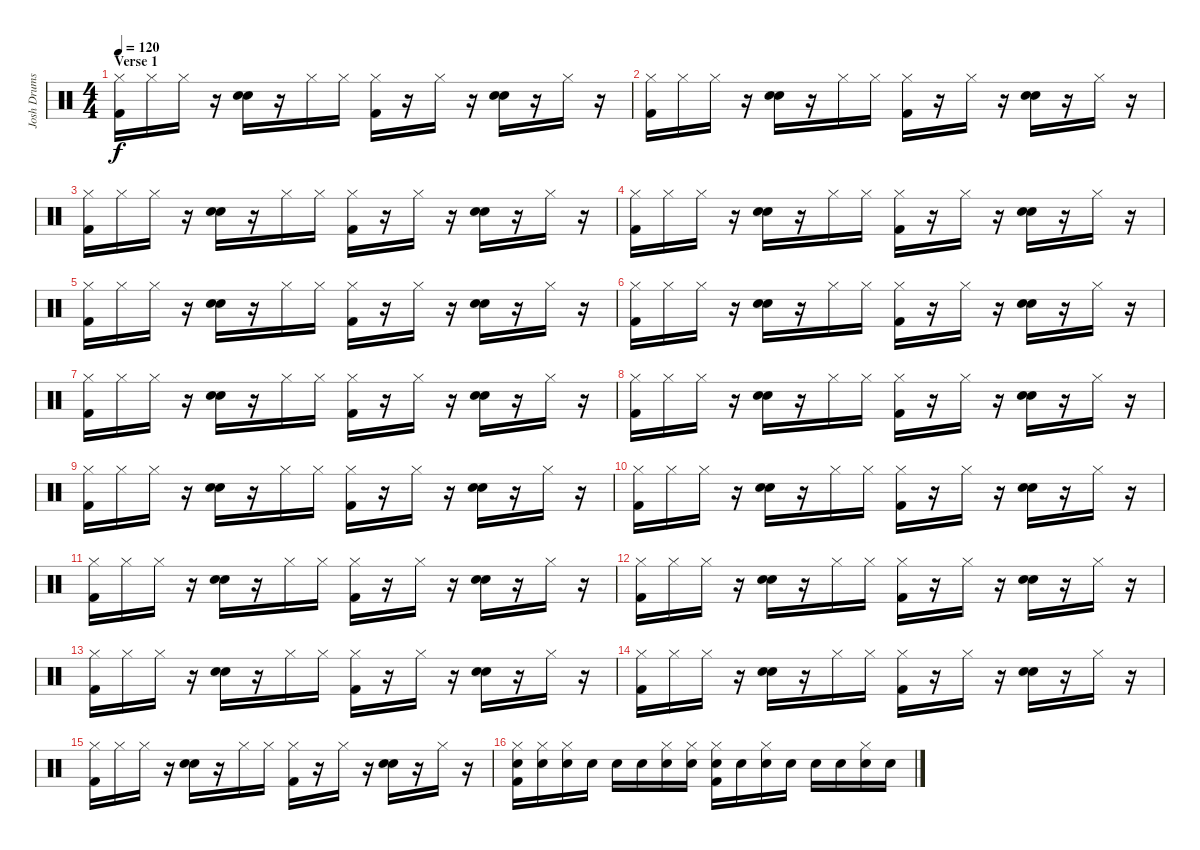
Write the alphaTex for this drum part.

\track ("Josh Drums" "Josh Drums") {instrument percussion}
\staff {score}
\articulation defaults
\ts (4 4)
\section ("" "Verse 1")
\tempo 120
\clef neutral
\ks c
("Hi-Hat (closed)" "Kick (hit) 2").16{dy f} "Hi-Hat (closed)".16 "Hi-Hat (closed)".16 r.16 ("Hand Clap (hit)" "Hand Clap (hit)").16 r.16 "Hi-Hat (closed)".16 "Hi-Hat (closed)".16 ("Hi-Hat (closed)" "Kick (hit) 2").16 r.16 "Hi-Hat (closed)".16 r.16 ("Hand Clap (hit)" "Hand Clap (hit)").16 r.16 "Hi-Hat (closed)".16 r.16 |
("Hi-Hat (closed)" "Kick (hit) 2").16 "Hi-Hat (closed)".16 "Hi-Hat (closed)".16 r.16 ("Hand Clap (hit)" "Hand Clap (hit)").16 r.16 "Hi-Hat (closed)".16 "Hi-Hat (closed)".16 ("Hi-Hat (closed)" "Kick (hit) 2").16 r.16 "Hi-Hat (closed)".16 r.16 ("Hand Clap (hit)" "Hand Clap (hit)").16 r.16 "Hi-Hat (closed)".16 r.16 |
("Hi-Hat (closed)" "Kick (hit) 2").16 "Hi-Hat (closed)".16 "Hi-Hat (closed)".16 r.16 ("Hand Clap (hit)" "Hand Clap (hit)").16 r.16 "Hi-Hat (closed)".16 "Hi-Hat (closed)".16 ("Hi-Hat (closed)" "Kick (hit) 2").16 r.16 "Hi-Hat (closed)".16 r.16 ("Hand Clap (hit)" "Hand Clap (hit)").16 r.16 "Hi-Hat (closed)".16 r.16 |
("Hi-Hat (closed)" "Kick (hit) 2").16 "Hi-Hat (closed)".16 "Hi-Hat (closed)".16 r.16 ("Hand Clap (hit)" "Hand Clap (hit)").16 r.16 "Hi-Hat (closed)".16 "Hi-Hat (closed)".16 ("Hi-Hat (closed)" "Kick (hit) 2").16 r.16 "Hi-Hat (closed)".16 r.16 ("Hand Clap (hit)" "Hand Clap (hit)").16 r.16 "Hi-Hat (closed)".16 r.16 |
("Hi-Hat (closed)" "Kick (hit) 2").16 "Hi-Hat (closed)".16 "Hi-Hat (closed)".16 r.16 ("Hand Clap (hit)" "Hand Clap (hit)").16 r.16 "Hi-Hat (closed)".16 "Hi-Hat (closed)".16 ("Hi-Hat (closed)" "Kick (hit) 2").16 r.16 "Hi-Hat (closed)".16 r.16 ("Hand Clap (hit)" "Hand Clap (hit)").16 r.16 "Hi-Hat (closed)".16 r.16 |
("Hi-Hat (closed)" "Kick (hit) 2").16 "Hi-Hat (closed)".16 "Hi-Hat (closed)".16 r.16 ("Hand Clap (hit)" "Hand Clap (hit)").16 r.16 "Hi-Hat (closed)".16 "Hi-Hat (closed)".16 ("Hi-Hat (closed)" "Kick (hit) 2").16 r.16 "Hi-Hat (closed)".16 r.16 ("Hand Clap (hit)" "Hand Clap (hit)").16 r.16 "Hi-Hat (closed)".16 r.16 |
("Hi-Hat (closed)" "Kick (hit) 2").16 "Hi-Hat (closed)".16 "Hi-Hat (closed)".16 r.16 ("Hand Clap (hit)" "Hand Clap (hit)").16 r.16 "Hi-Hat (closed)".16 "Hi-Hat (closed)".16 ("Hi-Hat (closed)" "Kick (hit) 2").16 r.16 "Hi-Hat (closed)".16 r.16 ("Hand Clap (hit)" "Hand Clap (hit)").16 r.16 "Hi-Hat (closed)".16 r.16 |
("Hi-Hat (closed)" "Kick (hit) 2").16 "Hi-Hat (closed)".16 "Hi-Hat (closed)".16 r.16 ("Hand Clap (hit)" "Hand Clap (hit)").16 r.16 "Hi-Hat (closed)".16 "Hi-Hat (closed)".16 ("Hi-Hat (closed)" "Kick (hit) 2").16 r.16 "Hi-Hat (closed)".16 r.16 ("Hand Clap (hit)" "Hand Clap (hit)").16 r.16 "Hi-Hat (closed)".16 r.16 |
("Hi-Hat (closed)" "Kick (hit) 2").16 "Hi-Hat (closed)".16 "Hi-Hat (closed)".16 r.16 ("Hand Clap (hit)" "Hand Clap (hit)").16 r.16 "Hi-Hat (closed)".16 "Hi-Hat (closed)".16 ("Hi-Hat (closed)" "Kick (hit) 2").16 r.16 "Hi-Hat (closed)".16 r.16 ("Hand Clap (hit)" "Hand Clap (hit)").16 r.16 "Hi-Hat (closed)".16 r.16 |
("Hi-Hat (closed)" "Kick (hit) 2").16 "Hi-Hat (closed)".16 "Hi-Hat (closed)".16 r.16 ("Hand Clap (hit)" "Hand Clap (hit)").16 r.16 "Hi-Hat (closed)".16 "Hi-Hat (closed)".16 ("Hi-Hat (closed)" "Kick (hit) 2").16 r.16 "Hi-Hat (closed)".16 r.16 ("Hand Clap (hit)" "Hand Clap (hit)").16 r.16 "Hi-Hat (closed)".16 r.16 |
("Hi-Hat (closed)" "Kick (hit) 2").16 "Hi-Hat (closed)".16 "Hi-Hat (closed)".16 r.16 ("Hand Clap (hit)" "Hand Clap (hit)").16 r.16 "Hi-Hat (closed)".16 "Hi-Hat (closed)".16 ("Hi-Hat (closed)" "Kick (hit) 2").16 r.16 "Hi-Hat (closed)".16 r.16 ("Hand Clap (hit)" "Hand Clap (hit)").16 r.16 "Hi-Hat (closed)".16 r.16 |
("Hi-Hat (closed)" "Kick (hit) 2").16 "Hi-Hat (closed)".16 "Hi-Hat (closed)".16 r.16 ("Hand Clap (hit)" "Hand Clap (hit)").16 r.16 "Hi-Hat (closed)".16 "Hi-Hat (closed)".16 ("Hi-Hat (closed)" "Kick (hit) 2").16 r.16 "Hi-Hat (closed)".16 r.16 ("Hand Clap (hit)" "Hand Clap (hit)").16 r.16 "Hi-Hat (closed)".16 r.16 |
("Hi-Hat (closed)" "Kick (hit) 2").16 "Hi-Hat (closed)".16 "Hi-Hat (closed)".16 r.16 ("Hand Clap (hit)" "Hand Clap (hit)").16 r.16 "Hi-Hat (closed)".16 "Hi-Hat (closed)".16 ("Hi-Hat (closed)" "Kick (hit) 2").16 r.16 "Hi-Hat (closed)".16 r.16 ("Hand Clap (hit)" "Hand Clap (hit)").16 r.16 "Hi-Hat (closed)".16 r.16 |
("Hi-Hat (closed)" "Kick (hit) 2").16 "Hi-Hat (closed)".16 "Hi-Hat (closed)".16 r.16 ("Hand Clap (hit)" "Hand Clap (hit)").16 r.16 "Hi-Hat (closed)".16 "Hi-Hat (closed)".16 ("Hi-Hat (closed)" "Kick (hit) 2").16 r.16 "Hi-Hat (closed)".16 r.16 ("Hand Clap (hit)" "Hand Clap (hit)").16 r.16 "Hi-Hat (closed)".16 r.16 |
("Hi-Hat (closed)" "Kick (hit) 2").16 "Hi-Hat (closed)".16 "Hi-Hat (closed)".16 r.16 ("Hand Clap (hit)" "Hand Clap (hit)").16 r.16 "Hi-Hat (closed)".16 "Hi-Hat (closed)".16 ("Hi-Hat (closed)" "Kick (hit) 2").16 r.16 "Hi-Hat (closed)".16 r.16 ("Hand Clap (hit)" "Hand Clap (hit)").16 r.16 "Hi-Hat (closed)".16 r.16 |
("Hi-Hat (closed)" "Electric Snare (hit)" "Kick (hit) 2").16 ("Hi-Hat (closed)" "Electric Snare (hit)").16 ("Hi-Hat (closed)" "Electric Snare (hit)").16 "Electric Snare (hit)".16 "Electric Snare (hit)".16 "Electric Snare (hit)".16 ("Hi-Hat (closed)" "Electric Snare (hit)").16 ("Hi-Hat (closed)" "Electric Snare (hit)").16 ("Hi-Hat (closed)" "Electric Snare (hit)" "Kick (hit) 2").16 "Electric Snare (hit)".16 ("Hi-Hat (closed)" "Electric Snare (hit)").16 "Electric Snare (hit)".16 "Electric Snare (hit)".16 "Electric Snare (hit)".16 ("Hi-Hat (closed)" "Electric Snare (hit)").16 "Electric Snare (hit)".16
